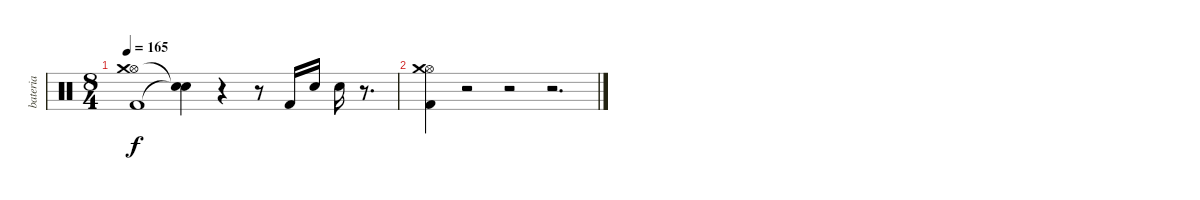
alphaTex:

\track ("bateria" "bateria") {instrument percussion}
\staff {score}
\articulation defaults
\ts (8 4)
\tempo 165
\clef neutral
\ks c
("Hi-Hat (open)" "Kick (hit) 2" "Crash medium (hit)").1{dy f} ("Snare (hit)"{t} "Snare (hit)"{t}).4 r.4 r.8 "Kick (hit) 2".16 "Electric Snare (hit)".16 "Electric Snare (hit)".16 r.8{d} |
("Hi-Hat (open)" "Kick (hit) 2" "Crash medium (hit)").4 r.2 r.2 r.2{d}
